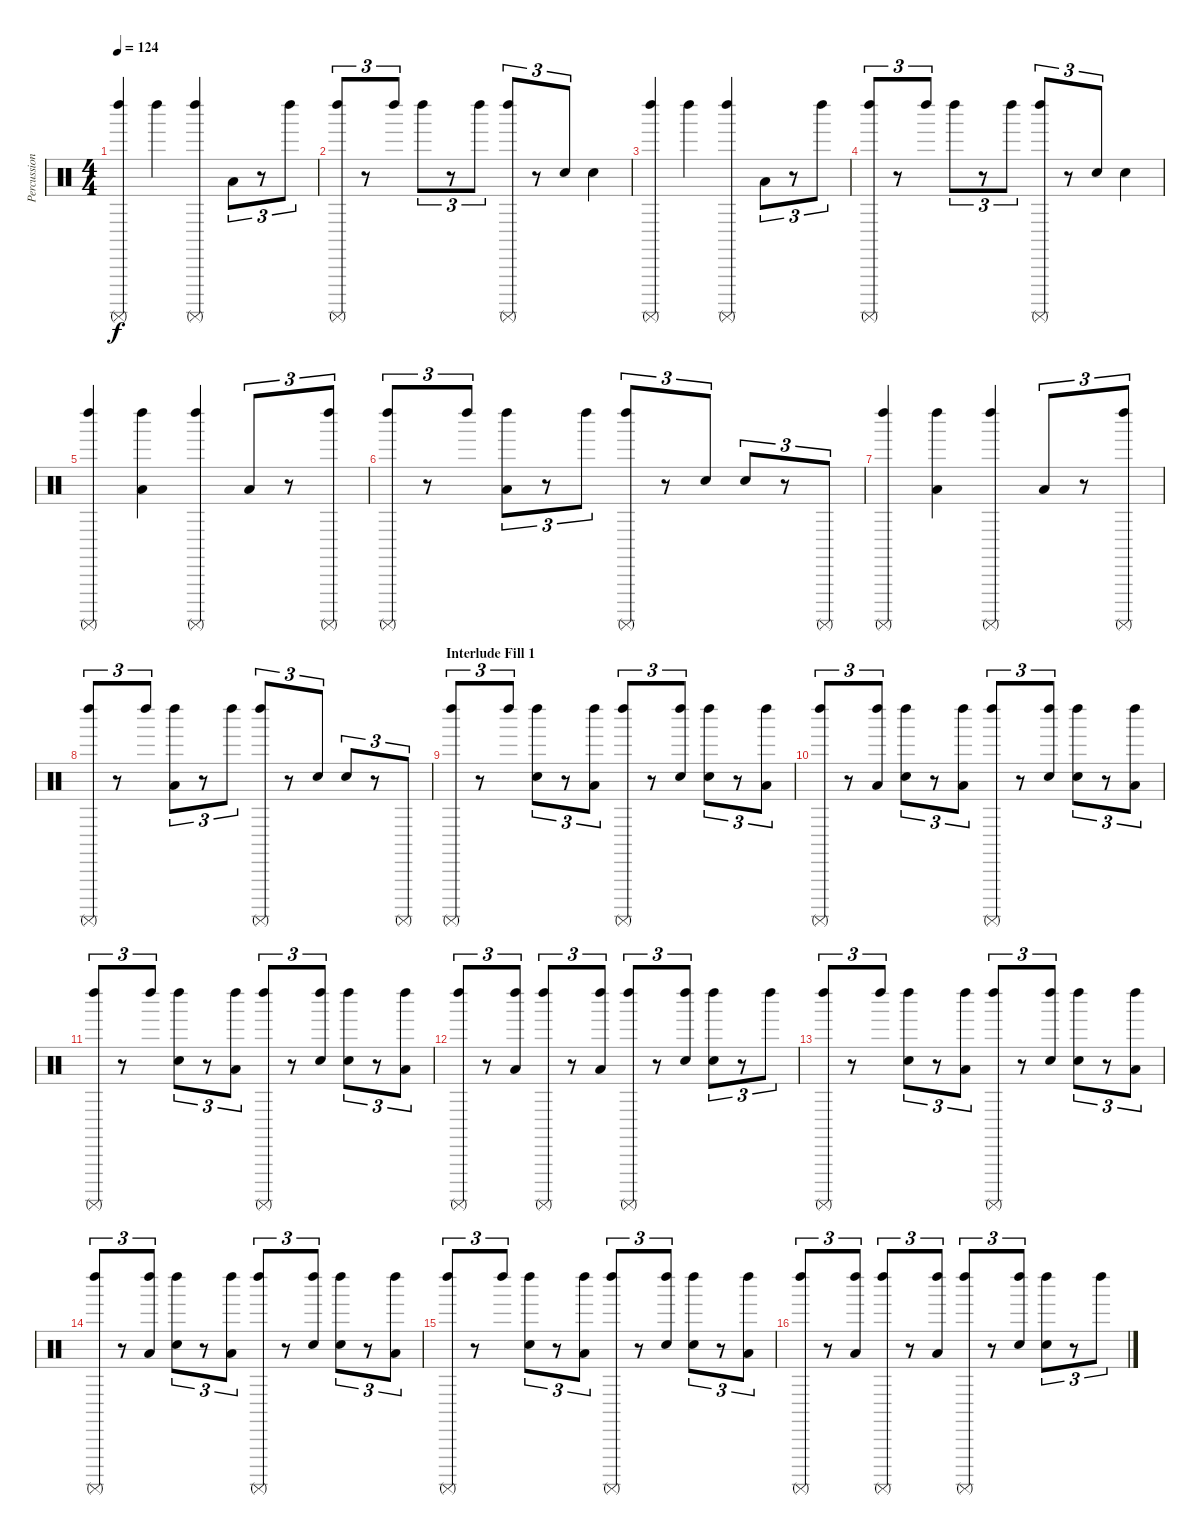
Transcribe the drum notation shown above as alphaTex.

\track ("Percussion" "Percussion") {instrument percussion}
\staff {score}
\articulation defaults
\ts (4 4)
\tempo 124
\clef neutral
\ks c
("Left Maraca (hit)" "Surdo (mute)").4{dy f} "Left Maraca (hit)".4 ("Left Maraca (hit)" "Surdo (mute)").4 "Low Floor Tom (hit)".8{tu (3 2)} r.8{tu (3 2)} "Left Maraca (hit)".8{tu (3 2)} |
("Left Maraca (hit)" "Surdo (mute)").8{tu (3 2)} r.8{tu (3 2)} "Left Maraca (hit)".8{tu (3 2)} "Left Maraca (hit)".8{tu (3 2)} r.8{tu (3 2)} "Left Maraca (hit)".8{tu (3 2)} ("Left Maraca (hit)" "Surdo (mute)").8{tu (3 2)} r.8{tu (3 2)} "Hand Clap (hit)".8{tu (3 2)} "Hand Clap (hit)".4 |
("Left Maraca (hit)" "Surdo (mute)").4 "Left Maraca (hit)".4 ("Left Maraca (hit)" "Surdo (mute)").4 "Low Floor Tom (hit)".8{tu (3 2)} r.8{tu (3 2)} "Left Maraca (hit)".8{tu (3 2)} |
("Left Maraca (hit)" "Surdo (mute)").8{tu (3 2)} r.8{tu (3 2)} "Left Maraca (hit)".8{tu (3 2)} "Left Maraca (hit)".8{tu (3 2)} r.8{tu (3 2)} "Left Maraca (hit)".8{tu (3 2)} ("Left Maraca (hit)" "Surdo (mute)").8{tu (3 2)} r.8{tu (3 2)} "Hand Clap (hit)".8{tu (3 2)} "Hand Clap (hit)".4 |
("Left Maraca (hit)" "Surdo (mute)").4 ("Left Maraca (hit)" "Low Floor Tom (hit)").4 ("Left Maraca (hit)" "Surdo (mute)").4 "Low Floor Tom (hit)".8{tu (3 2)} r.8{tu (3 2)} ("Left Maraca (hit)" "Surdo (mute)").8{tu (3 2)} |
("Left Maraca (hit)" "Surdo (mute)").8{tu (3 2)} r.8{tu (3 2)} "Left Maraca (hit)".8{tu (3 2)} ("Left Maraca (hit)" "Low Floor Tom (hit)").8{tu (3 2)} r.8{tu (3 2)} "Left Maraca (hit)".8{tu (3 2)} ("Left Maraca (hit)" "Surdo (mute)").8{tu (3 2)} r.8{tu (3 2)} "Hand Clap (hit)".8{tu (3 2)} "Hand Clap (hit)".8{tu (3 2)} r.8{tu (3 2)} "Surdo (mute)".8{tu (3 2)} |
("Left Maraca (hit)" "Surdo (mute)").4 ("Left Maraca (hit)" "Low Floor Tom (hit)").4 ("Left Maraca (hit)" "Surdo (mute)").4 "Low Floor Tom (hit)".8{tu (3 2)} r.8{tu (3 2)} ("Left Maraca (hit)" "Surdo (mute)").8{tu (3 2)} |
("Left Maraca (hit)" "Surdo (mute)").8{tu (3 2)} r.8{tu (3 2)} "Left Maraca (hit)".8{tu (3 2)} ("Left Maraca (hit)" "Low Floor Tom (hit)").8{tu (3 2)} r.8{tu (3 2)} "Left Maraca (hit)".8{tu (3 2)} ("Left Maraca (hit)" "Surdo (mute)").8{tu (3 2)} r.8{tu (3 2)} "Hand Clap (hit)".8{tu (3 2)} "Hand Clap (hit)".8{tu (3 2)} r.8{tu (3 2)} "Surdo (mute)".8{tu (3 2)} |
\section ("" "Interlude Fill 1")
("Left Maraca (hit)" "Surdo (mute)").8{tu (3 2)} r.8{tu (3 2)} "Left Maraca (hit)".8{tu (3 2)} ("Left Maraca (hit)" "Hand Clap (hit)").8{tu (3 2)} r.8{tu (3 2)} ("Left Maraca (hit)" "Low Floor Tom (hit)").8{tu (3 2)} ("Left Maraca (hit)" "Surdo (mute)").8{tu (3 2)} r.8{tu (3 2)} ("Left Maraca (hit)" "Hand Clap (hit)").8{tu (3 2)} ("Left Maraca (hit)" "Hand Clap (hit)").8{tu (3 2)} r.8{tu (3 2)} ("Left Maraca (hit)" "Low Floor Tom (hit)").8{tu (3 2)} |
("Left Maraca (hit)" "Surdo (mute)").8{tu (3 2)} r.8{tu (3 2)} ("Left Maraca (hit)" "Low Floor Tom (hit)").8{tu (3 2)} ("Left Maraca (hit)" "Hand Clap (hit)").8{tu (3 2)} r.8{tu (3 2)} ("Left Maraca (hit)" "Low Floor Tom (hit)").8{tu (3 2)} ("Left Maraca (hit)" "Surdo (mute)").8{tu (3 2)} r.8{tu (3 2)} ("Left Maraca (hit)" "Hand Clap (hit)").8{tu (3 2)} ("Left Maraca (hit)" "Hand Clap (hit)").8{tu (3 2)} r.8{tu (3 2)} ("Left Maraca (hit)" "Low Floor Tom (hit)").8{tu (3 2)} |
("Left Maraca (hit)" "Surdo (mute)").8{tu (3 2)} r.8{tu (3 2)} "Left Maraca (hit)".8{tu (3 2)} ("Left Maraca (hit)" "Hand Clap (hit)").8{tu (3 2)} r.8{tu (3 2)} ("Left Maraca (hit)" "Low Floor Tom (hit)").8{tu (3 2)} ("Left Maraca (hit)" "Surdo (mute)").8{tu (3 2)} r.8{tu (3 2)} ("Left Maraca (hit)" "Hand Clap (hit)").8{tu (3 2)} ("Left Maraca (hit)" "Hand Clap (hit)").8{tu (3 2)} r.8{tu (3 2)} ("Left Maraca (hit)" "Low Floor Tom (hit)").8{tu (3 2)} |
("Left Maraca (hit)" "Surdo (mute)").8{tu (3 2)} r.8{tu (3 2)} ("Left Maraca (hit)" "Low Floor Tom (hit)").8{tu (3 2)} ("Left Maraca (hit)" "Surdo (mute)").8{tu (3 2)} r.8{tu (3 2)} ("Left Maraca (hit)" "Low Floor Tom (hit)").8{tu (3 2)} ("Left Maraca (hit)" "Surdo (mute)").8{tu (3 2)} r.8{tu (3 2)} ("Left Maraca (hit)" "Hand Clap (hit)").8{tu (3 2)} ("Left Maraca (hit)" "Hand Clap (hit)").8{tu (3 2)} r.8{tu (3 2)} "Left Maraca (hit)".8{tu (3 2)} |
("Left Maraca (hit)" "Surdo (mute)").8{tu (3 2)} r.8{tu (3 2)} "Left Maraca (hit)".8{tu (3 2)} ("Left Maraca (hit)" "Hand Clap (hit)").8{tu (3 2)} r.8{tu (3 2)} ("Left Maraca (hit)" "Low Floor Tom (hit)").8{tu (3 2)} ("Left Maraca (hit)" "Surdo (mute)").8{tu (3 2)} r.8{tu (3 2)} ("Left Maraca (hit)" "Hand Clap (hit)").8{tu (3 2)} ("Left Maraca (hit)" "Hand Clap (hit)").8{tu (3 2)} r.8{tu (3 2)} ("Left Maraca (hit)" "Low Floor Tom (hit)").8{tu (3 2)} |
("Left Maraca (hit)" "Surdo (mute)").8{tu (3 2)} r.8{tu (3 2)} ("Left Maraca (hit)" "Low Floor Tom (hit)").8{tu (3 2)} ("Left Maraca (hit)" "Hand Clap (hit)").8{tu (3 2)} r.8{tu (3 2)} ("Left Maraca (hit)" "Low Floor Tom (hit)").8{tu (3 2)} ("Left Maraca (hit)" "Surdo (mute)").8{tu (3 2)} r.8{tu (3 2)} ("Left Maraca (hit)" "Hand Clap (hit)").8{tu (3 2)} ("Left Maraca (hit)" "Hand Clap (hit)").8{tu (3 2)} r.8{tu (3 2)} ("Left Maraca (hit)" "Low Floor Tom (hit)").8{tu (3 2)} |
("Left Maraca (hit)" "Surdo (mute)").8{tu (3 2)} r.8{tu (3 2)} "Left Maraca (hit)".8{tu (3 2)} ("Left Maraca (hit)" "Hand Clap (hit)").8{tu (3 2)} r.8{tu (3 2)} ("Left Maraca (hit)" "Low Floor Tom (hit)").8{tu (3 2)} ("Left Maraca (hit)" "Surdo (mute)").8{tu (3 2)} r.8{tu (3 2)} ("Left Maraca (hit)" "Hand Clap (hit)").8{tu (3 2)} ("Left Maraca (hit)" "Hand Clap (hit)").8{tu (3 2)} r.8{tu (3 2)} ("Left Maraca (hit)" "Low Floor Tom (hit)").8{tu (3 2)} |
("Left Maraca (hit)" "Surdo (mute)").8{tu (3 2)} r.8{tu (3 2)} ("Left Maraca (hit)" "Low Floor Tom (hit)").8{tu (3 2)} ("Left Maraca (hit)" "Surdo (mute)").8{tu (3 2)} r.8{tu (3 2)} ("Left Maraca (hit)" "Low Floor Tom (hit)").8{tu (3 2)} ("Left Maraca (hit)" "Surdo (mute)").8{tu (3 2)} r.8{tu (3 2)} ("Left Maraca (hit)" "Hand Clap (hit)").8{tu (3 2)} ("Left Maraca (hit)" "Hand Clap (hit)").8{tu (3 2)} r.8{tu (3 2)} "Left Maraca (hit)".8{tu (3 2)}
